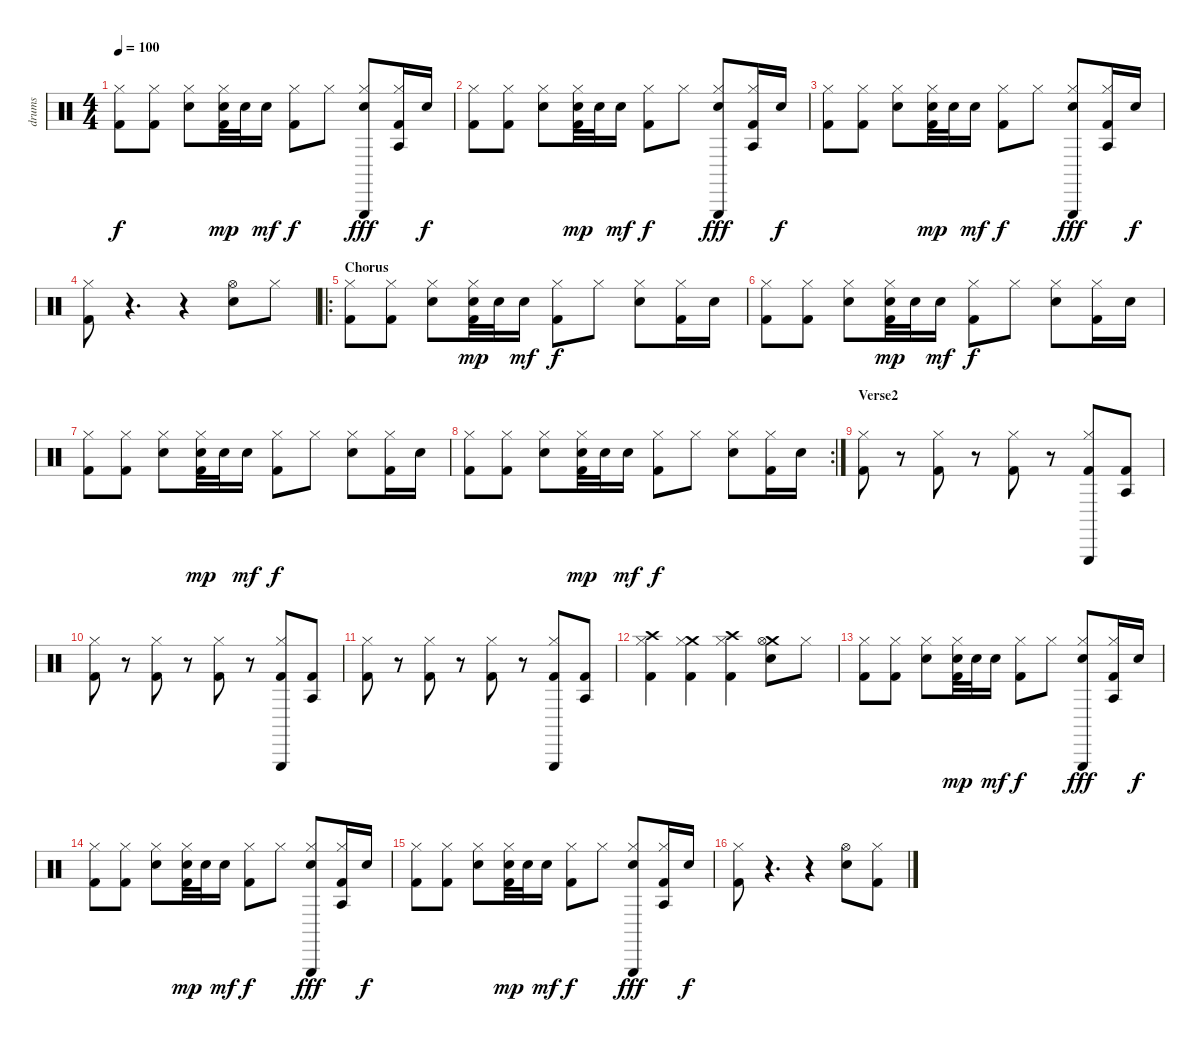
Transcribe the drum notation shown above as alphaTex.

\track ("drums" "drums") {instrument percussion}
\staff {score}
\articulation defaults
\ts (4 4)
\tempo 100
\clef neutral
\ks c
("Hi-Hat (closed)" "Kick (hit) 2").8{dy f} ("Hi-Hat (closed)" "Kick (hit) 2").8 ("Hi-Hat (closed)" "Electric Snare (hit)").8 ("Hi-Hat (closed)" "Electric Snare (hit)" "Kick (hit) 2").32{dy mp} "Electric Snare (hit)".32 "Electric Snare (hit)".16{dy mf} ("Hi-Hat (closed)" "Kick (hit) 2").8{dy f} "Hi-Hat (closed)".8 ("Triangle (hit)" "Hi-Hat (closed)" "Electric Snare (hit)").8{dy fff} ("Agogo tow (hit)" "Hi-Hat (closed)" "Kick (hit) 2").16 "Electric Snare (hit)".16{dy f} |
("Hi-Hat (closed)" "Kick (hit) 2").8 ("Hi-Hat (closed)" "Kick (hit) 2").8 ("Hi-Hat (closed)" "Electric Snare (hit)").8 ("Hi-Hat (closed)" "Electric Snare (hit)" "Kick (hit) 2").32{dy mp} "Electric Snare (hit)".32 "Electric Snare (hit)".16{dy mf} ("Hi-Hat (closed)" "Kick (hit) 2").8{dy f} "Hi-Hat (closed)".8 ("Triangle (hit)" "Hi-Hat (closed)" "Electric Snare (hit)").8{dy fff} ("Agogo tow (hit)" "Hi-Hat (closed)" "Kick (hit) 2").16 "Electric Snare (hit)".16{dy f} |
("Hi-Hat (closed)" "Kick (hit) 2").8 ("Hi-Hat (closed)" "Kick (hit) 2").8 ("Hi-Hat (closed)" "Electric Snare (hit)").8 ("Hi-Hat (closed)" "Electric Snare (hit)" "Kick (hit) 2").32{dy mp} "Electric Snare (hit)".32 "Electric Snare (hit)".16{dy mf} ("Hi-Hat (closed)" "Kick (hit) 2").8{dy f} "Hi-Hat (closed)".8 ("Triangle (hit)" "Hi-Hat (closed)" "Electric Snare (hit)").8{dy fff} ("Agogo tow (hit)" "Hi-Hat (closed)" "Kick (hit) 2").16 "Electric Snare (hit)".16{dy f} |
("Hi-Hat (closed)" "Kick (hit) 2").8 r.4{d} r.4 ("Hi-Hat (open)" "Electric Snare (hit)").8 "Hi-Hat (closed)".8 |
\ro
\section ("" "Chorus")
("Hi-Hat (closed)" "Kick (hit) 2").8 ("Hi-Hat (closed)" "Kick (hit) 2").8 ("Hi-Hat (closed)" "Electric Snare (hit)").8 ("Hi-Hat (closed)" "Electric Snare (hit)" "Kick (hit) 2").32{dy mp} "Electric Snare (hit)".32 "Electric Snare (hit)".16{dy mf} ("Hi-Hat (closed)" "Kick (hit) 2").8{dy f} "Hi-Hat (closed)".8 ("Hi-Hat (closed)" "Electric Snare (hit)").8 ("Hi-Hat (closed)" "Kick (hit) 2").16 "Electric Snare (hit)".16 |
("Hi-Hat (closed)" "Kick (hit) 2").8 ("Hi-Hat (closed)" "Kick (hit) 2").8 ("Hi-Hat (closed)" "Electric Snare (hit)").8 ("Hi-Hat (closed)" "Electric Snare (hit)" "Kick (hit) 2").32{dy mp} "Electric Snare (hit)".32 "Electric Snare (hit)".16{dy mf} ("Hi-Hat (closed)" "Kick (hit) 2").8{dy f} "Hi-Hat (closed)".8 ("Hi-Hat (closed)" "Electric Snare (hit)").8 ("Hi-Hat (closed)" "Kick (hit) 2").16 "Electric Snare (hit)".16 |
("Hi-Hat (closed)" "Kick (hit) 2").8 ("Hi-Hat (closed)" "Kick (hit) 2").8 ("Hi-Hat (closed)" "Electric Snare (hit)").8 ("Hi-Hat (closed)" "Electric Snare (hit)" "Kick (hit) 2").32{dy mp} "Electric Snare (hit)".32 "Electric Snare (hit)".16{dy mf} ("Hi-Hat (closed)" "Kick (hit) 2").8{dy f} "Hi-Hat (closed)".8 ("Hi-Hat (closed)" "Electric Snare (hit)").8 ("Hi-Hat (closed)" "Kick (hit) 2").16 "Electric Snare (hit)".16 |
\rc 2
("Hi-Hat (closed)" "Kick (hit) 2").8 ("Hi-Hat (closed)" "Kick (hit) 2").8 ("Hi-Hat (closed)" "Electric Snare (hit)").8 ("Hi-Hat (closed)" "Electric Snare (hit)" "Kick (hit) 2").32{dy mp} "Electric Snare (hit)".32 "Electric Snare (hit)".16{dy mf} ("Hi-Hat (closed)" "Kick (hit) 2").8{dy f} "Hi-Hat (closed)".8 ("Hi-Hat (closed)" "Electric Snare (hit)").8 ("Hi-Hat (closed)" "Kick (hit) 2").16 "Electric Snare (hit)".16 |
\section ("" "Verse2")
("Hi-Hat (closed)" "Kick (hit) 2").8 r.8 ("Hi-Hat (closed)" "Kick (hit) 2").8 r.8 ("Hi-Hat (closed)" "Kick (hit) 2").8 r.8 ("Triangle (hit)" "Hi-Hat (closed)" "Kick (hit) 2").8 ("Agogo tow (hit)" "Kick (hit) 2").8 |
("Hi-Hat (closed)" "Kick (hit) 2").8 r.8 ("Hi-Hat (closed)" "Kick (hit) 2").8 r.8 ("Hi-Hat (closed)" "Kick (hit) 2").8 r.8 ("Triangle (hit)" "Hi-Hat (closed)" "Kick (hit) 2").8 ("Agogo tow (hit)" "Kick (hit) 2").8 |
("Hi-Hat (closed)" "Kick (hit) 2").8 r.8 ("Hi-Hat (closed)" "Kick (hit) 2").8 r.8 ("Hi-Hat (closed)" "Kick (hit) 2").8 r.8 ("Triangle (hit)" "Hi-Hat (closed)" "Kick (hit) 2").8 ("Agogo tow (hit)" "Kick (hit) 2").8 |
("Crash high (hit)" "Hi-Hat (closed)" "Kick (hit) 2").4 ("Crash medium (hit)" "Hi-Hat (closed)" "Kick (hit) 2").4 ("Crash high (hit)" "Hi-Hat (closed)" "Kick (hit) 2").4 ("Crash medium (hit)" "Hi-Hat (open)" "Electric Snare (hit)").8 "Hi-Hat (closed)".8 |
("Hi-Hat (closed)" "Kick (hit) 2").8 ("Hi-Hat (closed)" "Kick (hit) 2").8 ("Hi-Hat (closed)" "Electric Snare (hit)").8 ("Hi-Hat (closed)" "Electric Snare (hit)" "Kick (hit) 2").32{dy mp} "Electric Snare (hit)".32 "Electric Snare (hit)".16{dy mf} ("Hi-Hat (closed)" "Kick (hit) 2").8{dy f} "Hi-Hat (closed)".8 ("Triangle (hit)" "Hi-Hat (closed)" "Electric Snare (hit)").8{dy fff} ("Agogo tow (hit)" "Hi-Hat (closed)" "Kick (hit) 2").16 "Electric Snare (hit)".16{dy f} |
("Hi-Hat (closed)" "Kick (hit) 2").8 ("Hi-Hat (closed)" "Kick (hit) 2").8 ("Hi-Hat (closed)" "Electric Snare (hit)").8 ("Hi-Hat (closed)" "Electric Snare (hit)" "Kick (hit) 2").32{dy mp} "Electric Snare (hit)".32 "Electric Snare (hit)".16{dy mf} ("Hi-Hat (closed)" "Kick (hit) 2").8{dy f} "Hi-Hat (closed)".8 ("Triangle (hit)" "Hi-Hat (closed)" "Electric Snare (hit)").8{dy fff} ("Agogo tow (hit)" "Hi-Hat (closed)" "Kick (hit) 2").16 "Electric Snare (hit)".16{dy f} |
("Hi-Hat (closed)" "Kick (hit) 2").8 ("Hi-Hat (closed)" "Kick (hit) 2").8 ("Hi-Hat (closed)" "Electric Snare (hit)").8 ("Hi-Hat (closed)" "Electric Snare (hit)" "Kick (hit) 2").32{dy mp} "Electric Snare (hit)".32 "Electric Snare (hit)".16{dy mf} ("Hi-Hat (closed)" "Kick (hit) 2").8{dy f} "Hi-Hat (closed)".8 ("Triangle (hit)" "Hi-Hat (closed)" "Electric Snare (hit)").8{dy fff} ("Agogo tow (hit)" "Hi-Hat (closed)" "Kick (hit) 2").16 "Electric Snare (hit)".16{dy f} |
("Hi-Hat (closed)" "Kick (hit) 2").8 r.4{d} r.4 ("Hi-Hat (open)" "Electric Snare (hit)").8 ("Hi-Hat (closed)" "Kick (hit) 2").8
